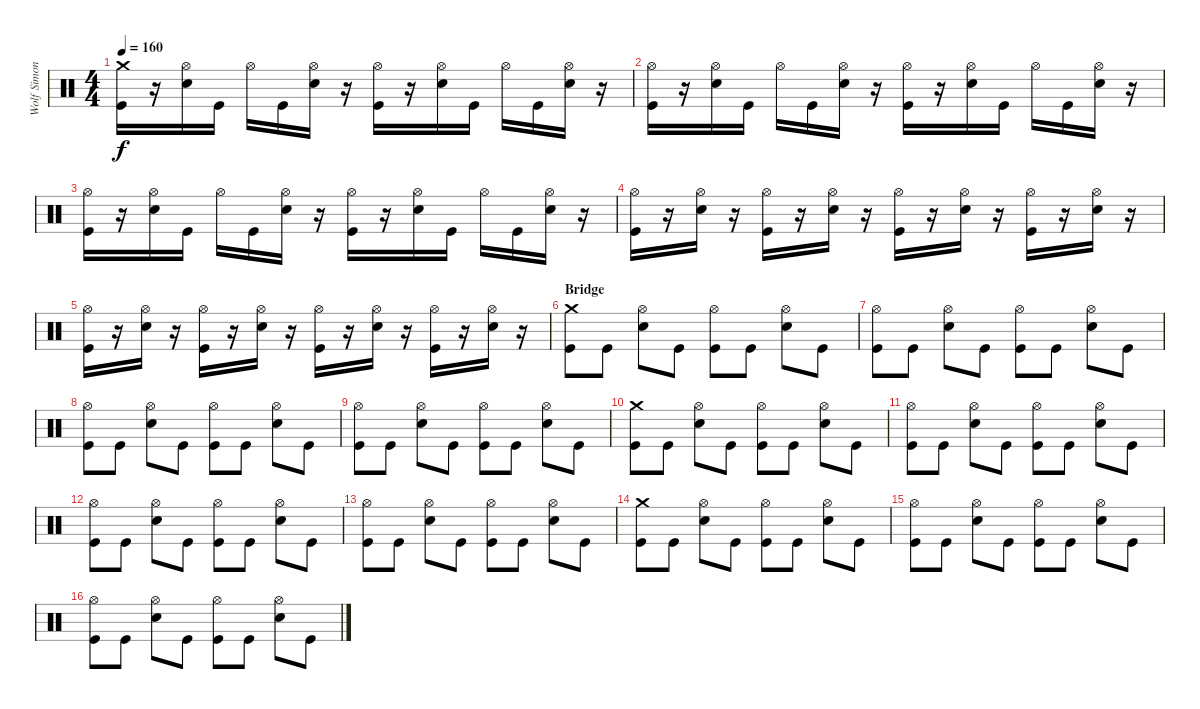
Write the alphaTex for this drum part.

\track ("Wolf Simons" "Wolf Simon") {instrument percussion}
\staff {score}
\articulation defaults
\ts (4 4)
\tempo 160
\clef neutral
\ks c
("Crash medium (hit)" "Kick (hit)").16{dy f} r.16 ("Hi-Hat (open)" "Electric Snare (hit)").16 "Kick (hit)".16 "Hi-Hat (open)".16 "Kick (hit)".16 ("Hi-Hat (open)" "Electric Snare (hit)").16 r.16 ("Hi-Hat (open)" "Kick (hit)").16 r.16 ("Hi-Hat (open)" "Electric Snare (hit)").16 "Kick (hit)".16 "Hi-Hat (open)".16 "Kick (hit)".16 ("Hi-Hat (open)" "Electric Snare (hit)").16 r.16 |
("Hi-Hat (open)" "Kick (hit)").16 r.16 ("Hi-Hat (open)" "Electric Snare (hit)").16 "Kick (hit)".16 "Hi-Hat (open)".16 "Kick (hit)".16 ("Hi-Hat (open)" "Electric Snare (hit)").16 r.16 ("Hi-Hat (open)" "Kick (hit)").16 r.16 ("Hi-Hat (open)" "Electric Snare (hit)").16 "Kick (hit)".16 "Hi-Hat (open)".16 "Kick (hit)".16 ("Hi-Hat (open)" "Electric Snare (hit)").16 r.16 |
("Hi-Hat (open)" "Kick (hit)").16 r.16 ("Hi-Hat (open)" "Electric Snare (hit)").16 "Kick (hit)".16 "Hi-Hat (open)".16 "Kick (hit)".16 ("Hi-Hat (open)" "Electric Snare (hit)").16 r.16 ("Hi-Hat (open)" "Kick (hit)").16 r.16 ("Hi-Hat (open)" "Electric Snare (hit)").16 "Kick (hit)".16 "Hi-Hat (open)".16 "Kick (hit)".16 ("Hi-Hat (open)" "Electric Snare (hit)").16 r.16 |
("Hi-Hat (open)" "Kick (hit)").16 r.16 ("Hi-Hat (open)" "Electric Snare (hit)").16 r.16 ("Hi-Hat (open)" "Kick (hit)").16 r.16 ("Hi-Hat (open)" "Electric Snare (hit)").16 r.16 ("Hi-Hat (open)" "Kick (hit)").16 r.16 ("Hi-Hat (open)" "Electric Snare (hit)").16 r.16 ("Hi-Hat (open)" "Kick (hit)").16 r.16 ("Hi-Hat (open)" "Electric Snare (hit)").16 r.16 |
("Hi-Hat (open)" "Kick (hit)").16 r.16 ("Hi-Hat (open)" "Electric Snare (hit)").16 r.16 ("Hi-Hat (open)" "Kick (hit)").16 r.16 ("Hi-Hat (open)" "Electric Snare (hit)").16 r.16 ("Hi-Hat (open)" "Kick (hit)").16 r.16 ("Hi-Hat (open)" "Electric Snare (hit)").16 r.16 ("Hi-Hat (open)" "Kick (hit)").16 r.16 ("Hi-Hat (open)" "Electric Snare (hit)").16 r.16 |
\section ("" "Bridge")
("Crash medium (hit)" "Kick (hit)").8 "Kick (hit)".8 ("Hi-Hat (open)" "Electric Snare (hit)").8 "Kick (hit)".8 ("Hi-Hat (open)" "Kick (hit)").8 "Kick (hit)".8 ("Hi-Hat (open)" "Electric Snare (hit)").8 "Kick (hit)".8 |
("Hi-Hat (open)" "Kick (hit)").8 "Kick (hit)".8 ("Hi-Hat (open)" "Electric Snare (hit)").8 "Kick (hit)".8 ("Hi-Hat (open)" "Kick (hit)").8 "Kick (hit)".8 ("Hi-Hat (open)" "Electric Snare (hit)").8 "Kick (hit)".8 |
("Hi-Hat (open)" "Kick (hit)").8 "Kick (hit)".8 ("Hi-Hat (open)" "Electric Snare (hit)").8 "Kick (hit)".8 ("Hi-Hat (open)" "Kick (hit)").8 "Kick (hit)".8 ("Hi-Hat (open)" "Electric Snare (hit)").8 "Kick (hit)".8 |
("Hi-Hat (open)" "Kick (hit)").8 "Kick (hit)".8 ("Hi-Hat (open)" "Electric Snare (hit)").8 "Kick (hit)".8 ("Hi-Hat (open)" "Kick (hit)").8 "Kick (hit)".8 ("Hi-Hat (open)" "Electric Snare (hit)").8 "Kick (hit)".8 |
("Crash medium (hit)" "Kick (hit)").8 "Kick (hit)".8 ("Hi-Hat (open)" "Electric Snare (hit)").8 "Kick (hit)".8 ("Hi-Hat (open)" "Kick (hit)").8 "Kick (hit)".8 ("Hi-Hat (open)" "Electric Snare (hit)").8 "Kick (hit)".8 |
("Hi-Hat (open)" "Kick (hit)").8 "Kick (hit)".8 ("Hi-Hat (open)" "Electric Snare (hit)").8 "Kick (hit)".8 ("Hi-Hat (open)" "Kick (hit)").8 "Kick (hit)".8 ("Hi-Hat (open)" "Electric Snare (hit)").8 "Kick (hit)".8 |
("Hi-Hat (open)" "Kick (hit)").8 "Kick (hit)".8 ("Hi-Hat (open)" "Electric Snare (hit)").8 "Kick (hit)".8 ("Hi-Hat (open)" "Kick (hit)").8 "Kick (hit)".8 ("Hi-Hat (open)" "Electric Snare (hit)").8 "Kick (hit)".8 |
("Hi-Hat (open)" "Kick (hit)").8 "Kick (hit)".8 ("Hi-Hat (open)" "Electric Snare (hit)").8 "Kick (hit)".8 ("Hi-Hat (open)" "Kick (hit)").8 "Kick (hit)".8 ("Hi-Hat (open)" "Electric Snare (hit)").8 "Kick (hit)".8 |
("Crash medium (hit)" "Kick (hit)").8 "Kick (hit)".8 ("Hi-Hat (open)" "Electric Snare (hit)").8 "Kick (hit)".8 ("Hi-Hat (open)" "Kick (hit)").8 "Kick (hit)".8 ("Hi-Hat (open)" "Electric Snare (hit)").8 "Kick (hit)".8 |
("Hi-Hat (open)" "Kick (hit)").8 "Kick (hit)".8 ("Hi-Hat (open)" "Electric Snare (hit)").8 "Kick (hit)".8 ("Hi-Hat (open)" "Kick (hit)").8 "Kick (hit)".8 ("Hi-Hat (open)" "Electric Snare (hit)").8 "Kick (hit)".8 |
("Hi-Hat (open)" "Kick (hit)").8 "Kick (hit)".8 ("Hi-Hat (open)" "Electric Snare (hit)").8 "Kick (hit)".8 ("Hi-Hat (open)" "Kick (hit)").8 "Kick (hit)".8 ("Hi-Hat (open)" "Electric Snare (hit)").8 "Kick (hit)".8
